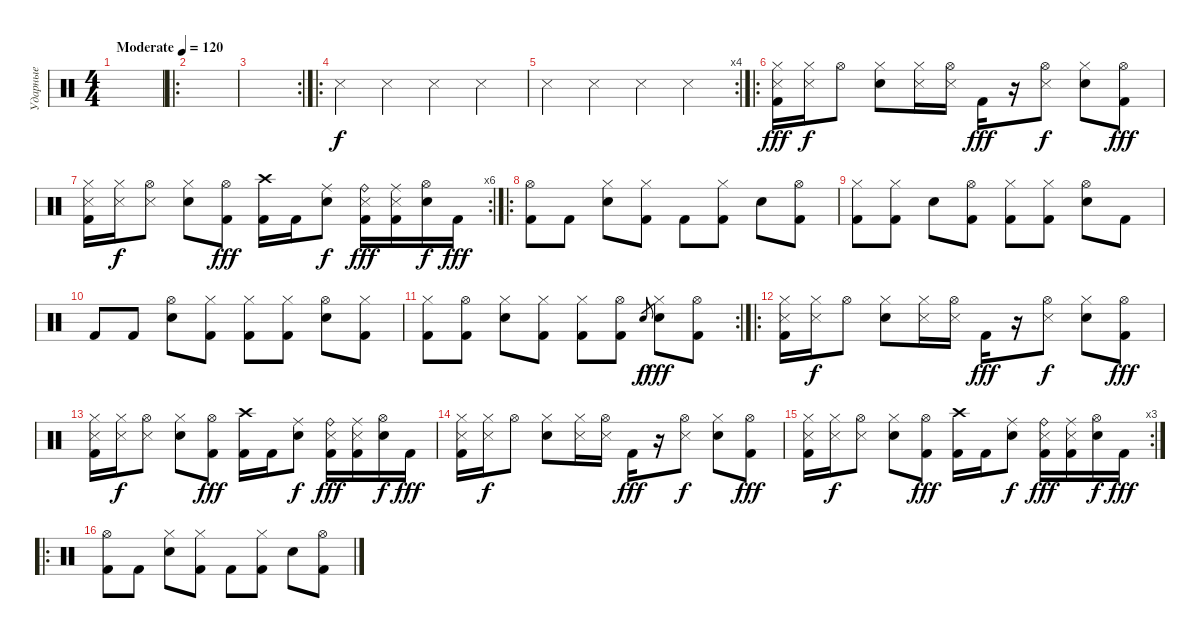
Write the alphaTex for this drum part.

\track ("Ударные" "Ударные") {instrument percussion}
\staff {score}
\articulation defaults
\ts (4 4)
\tempo (120 "Moderate")
\clef neutral
\ks c
|
\ro
|
\rc 2
|
\ro "Snare (side stick) 3".4 "Snare (side stick) 3".4 "Snare (side stick) 3".4 "Snare (side stick) 3".4
|
\rc 4 "Snare (side stick) 3".4 "Snare (side stick) 3".4 "Snare (side stick) 3".4 "Snare (side stick) 3".4
|
\ro
("Hi-Hat (closed)" "Snare (side stick) 3" "Kick (hit) 2").16{dy fff} ("Hi-Hat (closed)" "Snare (side stick) 3").16{dy f} "Hi-Hat (open)".8 ("Hi-Hat (closed)" "Electric Snare (hit)").8 ("Hi-Hat (closed)" "Snare (side stick) 3").16 ("Hi-Hat (open)" "Snare (side stick) 3").16 "Kick (hit) 2".16{dy fff} r.16 ("Hi-Hat (open)" "Snare (side stick) 3").8{dy f} ("Hi-Hat (closed)" "Electric Snare (hit)").8 ("Hi-Hat (open)" "Kick (hit) 2").8{dy fff} |
\rc 6
("Hi-Hat (closed)" "Snare (side stick) 3" "Kick (hit) 2").16 ("Hi-Hat (closed)" "Snare (side stick) 3").16{dy f} ("Hi-Hat (open)" "Snare (side stick) 3").8 ("Hi-Hat (closed)" "Electric Snare (hit)").8 ("Hi-Hat (open)" "Kick (hit) 2").8{dy fff} ("Crash high (hit)" "Kick (hit) 2").16 "Kick (hit) 2".16 ("Ride (middle)" "Electric Snare (hit)").8{dy f} ("Ride (bell)" "Snare (side stick) 3" "Kick (hit) 2").16{dy fff} ("Ride (middle)" "Snare (side stick) 3" "Kick (hit) 2").16 ("Hi-Hat (open)" "Electric Snare (hit)").16{dy f} "Kick (hit) 2".16{dy fff} |
\ro
("Hi-Hat (open)" "Kick (hit) 2").8 "Kick (hit) 2".8 ("Hi-Hat (closed)" "Electric Snare (hit)").8 ("Hi-Hat (closed)" "Kick (hit) 2").8 "Kick (hit) 2".8 ("Hi-Hat (closed)" "Kick (hit) 2").8 "Electric Snare (hit)".8 ("Hi-Hat (open)" "Kick (hit) 2").8 |
("Hi-Hat (closed)" "Kick (hit) 2").8 ("Hi-Hat (closed)" "Kick (hit) 2").8 "Electric Snare (hit)".8 ("Hi-Hat (open)" "Kick (hit) 2").8 ("Hi-Hat (closed)" "Kick (hit) 2").8 ("Hi-Hat (closed)" "Kick (hit) 2").8 ("Hi-Hat (open)" "Electric Snare (hit)").8 "Kick (hit) 2".8 |
"Kick (hit) 2".8 "Kick (hit) 2".8 ("Hi-Hat (open)" "Electric Snare (hit)").8 ("Hi-Hat (closed)" "Kick (hit) 2").8 ("Hi-Hat (closed)" "Kick (hit) 2").8 ("Hi-Hat (closed)" "Kick (hit) 2").8 ("Hi-Hat (open)" "Electric Snare (hit)").8 ("Hi-Hat (closed)" "Kick (hit) 2").8 |
\rc 2
("Hi-Hat (closed)" "Kick (hit) 2").8 ("Hi-Hat (open)" "Kick (hit) 2").8 ("Hi-Hat (closed)" "Electric Snare (hit)").8 ("Hi-Hat (closed)" "Kick (hit) 2").8 ("Hi-Hat (closed)" "Kick (hit) 2").8 ("Hi-Hat (open)" "Kick (hit) 2").8 "Electric Snare (hit)".8{gr dy f} ("Hi-Hat (closed)" "Electric Snare (hit)").8{dy fff} ("Hi-Hat (open)" "Kick (hit) 2").8 |
\ro
("Hi-Hat (closed)" "Snare (side stick) 3" "Kick (hit) 2").16 ("Hi-Hat (closed)" "Snare (side stick) 3").16{dy f} "Hi-Hat (open)".8 ("Hi-Hat (closed)" "Electric Snare (hit)").8 ("Hi-Hat (closed)" "Snare (side stick) 3").16 ("Hi-Hat (open)" "Snare (side stick) 3").16 "Kick (hit) 2".16{dy fff} r.16 ("Hi-Hat (open)" "Snare (side stick) 3").8{dy f} ("Hi-Hat (closed)" "Electric Snare (hit)").8 ("Hi-Hat (open)" "Kick (hit) 2").8{dy fff} |
("Hi-Hat (closed)" "Snare (side stick) 3" "Kick (hit) 2").16 ("Hi-Hat (closed)" "Snare (side stick) 3").16{dy f} ("Hi-Hat (open)" "Snare (side stick) 3").8 ("Hi-Hat (closed)" "Electric Snare (hit)").8 ("Hi-Hat (open)" "Kick (hit) 2").8{dy fff} ("Crash high (hit)" "Kick (hit) 2").16 "Kick (hit) 2".16 ("Ride (middle)" "Electric Snare (hit)").8{dy f} ("Ride (bell)" "Snare (side stick) 3" "Kick (hit) 2").16{dy fff} ("Ride (middle)" "Snare (side stick) 3" "Kick (hit) 2").16 ("Hi-Hat (open)" "Electric Snare (hit)").16{dy f} "Kick (hit) 2".16{dy fff} |
("Hi-Hat (closed)" "Snare (side stick) 3" "Kick (hit) 2").16 ("Hi-Hat (closed)" "Snare (side stick) 3").16{dy f} "Hi-Hat (open)".8 ("Hi-Hat (closed)" "Electric Snare (hit)").8 ("Hi-Hat (closed)" "Snare (side stick) 3").16 ("Hi-Hat (open)" "Snare (side stick) 3").16 "Kick (hit) 2".16{dy fff} r.16 ("Hi-Hat (open)" "Snare (side stick) 3").8{dy f} ("Hi-Hat (closed)" "Electric Snare (hit)").8 ("Hi-Hat (open)" "Kick (hit) 2").8{dy fff} |
\rc 3
("Hi-Hat (closed)" "Snare (side stick) 3" "Kick (hit) 2").16 ("Hi-Hat (closed)" "Snare (side stick) 3").16{dy f} ("Hi-Hat (open)" "Snare (side stick) 3").8 ("Hi-Hat (closed)" "Electric Snare (hit)").8 ("Hi-Hat (open)" "Kick (hit) 2").8{dy fff} ("Crash high (hit)" "Kick (hit) 2").16 "Kick (hit) 2".16 ("Ride (middle)" "Electric Snare (hit)").8{dy f} ("Ride (bell)" "Snare (side stick) 3" "Kick (hit) 2").16{dy fff} ("Ride (middle)" "Snare (side stick) 3" "Kick (hit) 2").16 ("Hi-Hat (open)" "Electric Snare (hit)").16{dy f} "Kick (hit) 2".16{dy fff} |
\ro
("Hi-Hat (open)" "Kick (hit) 2").8 "Kick (hit) 2".8 ("Hi-Hat (closed)" "Electric Snare (hit)").8 ("Hi-Hat (closed)" "Kick (hit) 2").8 "Kick (hit) 2".8 ("Hi-Hat (closed)" "Kick (hit) 2").8 "Electric Snare (hit)".8 ("Hi-Hat (open)" "Kick (hit) 2").8
